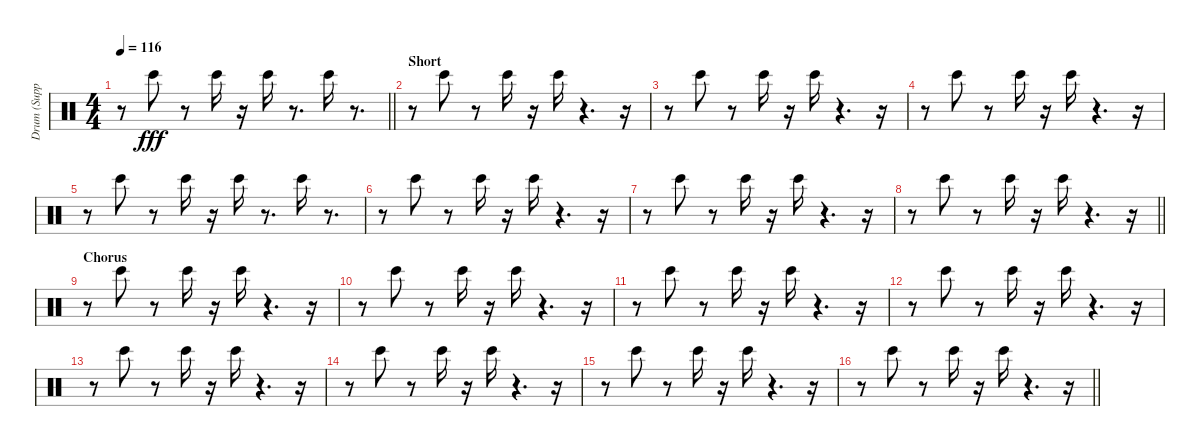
\track ("Drum (Support)" "Drum (Supp") {instrument percussion}
\staff {score}
\articulation defaults
\ts (4 4)
\tempo 116
\clef neutral
\barLineRight lightlight
\ks c
r.8{dy fff} "Bongo High (hit)".8 r.8 "Bongo High (hit)".16 r.16 "Bongo High (hit)".16 r.8{d} "Bongo High (hit)".16 r.8{d} |
\section ("" "Short")
r.8 "Bongo High (hit)".8 r.8 "Bongo High (hit)".16 r.16 "Bongo High (hit)".16 r.4{d} r.16 |
r.8 "Bongo High (hit)".8 r.8 "Bongo High (hit)".16 r.16 "Bongo High (hit)".16 r.4{d} r.16 |
r.8 "Bongo High (hit)".8 r.8 "Bongo High (hit)".16 r.16 "Bongo High (hit)".16 r.4{d} r.16 |
r.8 "Bongo High (hit)".8 r.8 "Bongo High (hit)".16 r.16 "Bongo High (hit)".16 r.8{d} "Bongo High (hit)".16 r.8{d} |
r.8 "Bongo High (hit)".8 r.8 "Bongo High (hit)".16 r.16 "Bongo High (hit)".16 r.4{d} r.16 |
r.8 "Bongo High (hit)".8 r.8 "Bongo High (hit)".16 r.16 "Bongo High (hit)".16 r.4{d} r.16 |
\barLineRight lightlight
r.8 "Bongo High (hit)".8 r.8 "Bongo High (hit)".16 r.16 "Bongo High (hit)".16 r.4{d} r.16 |
\section ("" "Chorus")
r.8 "Bongo High (hit)".8 r.8 "Bongo High (hit)".16 r.16 "Bongo High (hit)".16 r.4{d} r.16 |
r.8 "Bongo High (hit)".8 r.8 "Bongo High (hit)".16 r.16 "Bongo High (hit)".16 r.4{d} r.16 |
r.8 "Bongo High (hit)".8 r.8 "Bongo High (hit)".16 r.16 "Bongo High (hit)".16 r.4{d} r.16 |
r.8 "Bongo High (hit)".8 r.8 "Bongo High (hit)".16 r.16 "Bongo High (hit)".16 r.4{d} r.16 |
r.8 "Bongo High (hit)".8 r.8 "Bongo High (hit)".16 r.16 "Bongo High (hit)".16 r.4{d} r.16 |
r.8 "Bongo High (hit)".8 r.8 "Bongo High (hit)".16 r.16 "Bongo High (hit)".16 r.4{d} r.16 |
r.8 "Bongo High (hit)".8 r.8 "Bongo High (hit)".16 r.16 "Bongo High (hit)".16 r.4{d} r.16 |
\barLineRight lightlight
r.8 "Bongo High (hit)".8 r.8 "Bongo High (hit)".16 r.16 "Bongo High (hit)".16 r.4{d} r.16
